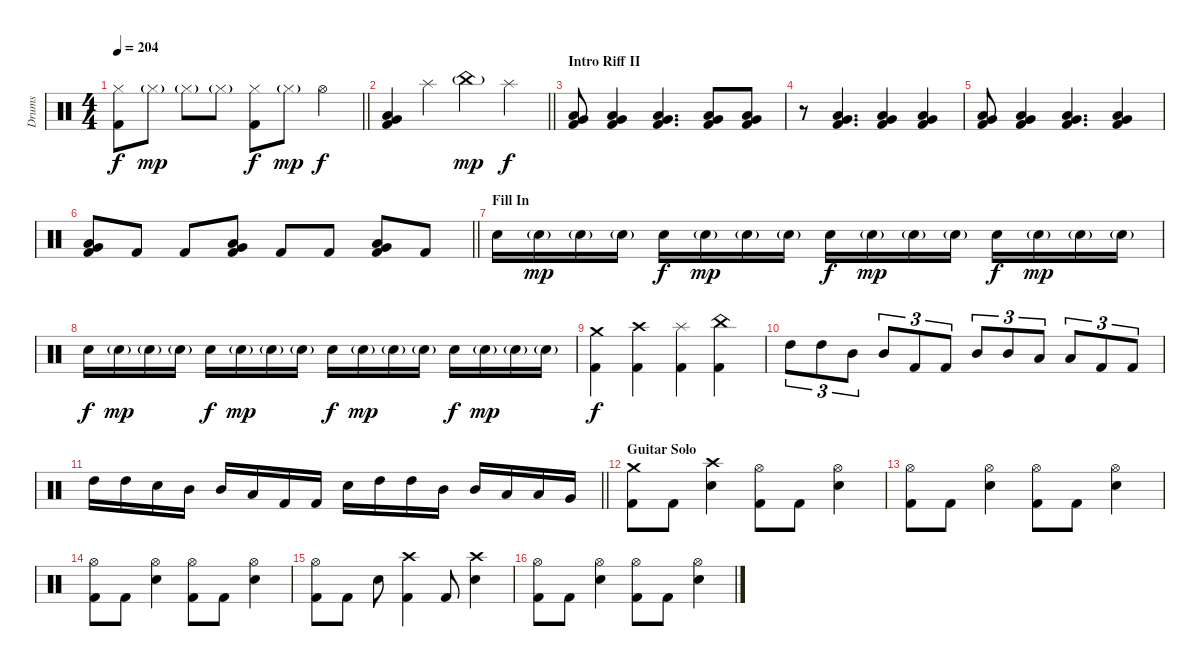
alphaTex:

\track ("Drums" "Drums") {instrument percussion}
\staff {score}
\articulation defaults
\ts (4 4)
\tempo 204
\clef neutral
\barLineRight lightlight
\ks c
("Hi-Hat (closed)" "Kick (hit) 2").8{dy f} "Hi-Hat (closed)"{g}.8{dy mp} "Hi-Hat (closed)"{g}.8 "Hi-Hat (closed)"{g}.8 ("Hi-Hat (closed)" "Kick (hit) 2").8{dy f} "Hi-Hat (closed)"{g}.8{dy mp} "Hi-Hat (open)".4{dy f} |
\barLineRight lightlight
("Very Low Tom (hit)" "Low Floor Tom (hit)" "Kick (hit) 2").4 "Splash (hit)".4 "China (hit)"{g}.4{dy mp} "Splash (hit)".4{dy f} |
\section ("" "Intro Riff II")
("Very Low Tom (hit)" "Low Floor Tom (hit)" "Kick (hit) 2").8 ("Very Low Tom (hit)" "Low Floor Tom (hit)" "Kick (hit) 2").4 ("Very Low Tom (hit)" "Low Floor Tom (hit)" "Kick (hit) 2").4{d} ("Very Low Tom (hit)" "Low Floor Tom (hit)" "Kick (hit) 2").8 ("Very Low Tom (hit)" "Low Floor Tom (hit)" "Kick (hit) 2").8 |
r.8 ("Very Low Tom (hit)" "Low Floor Tom (hit)" "Kick (hit) 2").4{d} ("Very Low Tom (hit)" "Low Floor Tom (hit)" "Kick (hit) 2").4 ("Very Low Tom (hit)" "Low Floor Tom (hit)" "Kick (hit) 2").4 |
("Very Low Tom (hit)" "Low Floor Tom (hit)" "Kick (hit) 2").8 ("Very Low Tom (hit)" "Low Floor Tom (hit)" "Kick (hit) 2").4 ("Very Low Tom (hit)" "Low Floor Tom (hit)" "Kick (hit) 2").4{d} ("Very Low Tom (hit)" "Low Floor Tom (hit)" "Kick (hit) 2").4 |
\barLineRight lightlight
("Very Low Tom (hit)" "Low Floor Tom (hit)" "Kick (hit) 2").8 "Kick (hit) 2".8 "Kick (hit) 2".8 ("Very Low Tom (hit)" "Low Floor Tom (hit)" "Kick (hit) 2").8 "Kick (hit) 2".8 "Kick (hit) 2".8 ("Very Low Tom (hit)" "Low Floor Tom (hit)" "Kick (hit) 2").8 "Kick (hit) 2".8 |
\section ("" "Fill In")
"Electric Snare (hit)".16 "Electric Snare (hit)"{g}.16{dy mp} "Electric Snare (hit)"{g}.16 "Electric Snare (hit)"{g}.16 "Electric Snare (hit)".16{dy f} "Electric Snare (hit)"{g}.16{dy mp} "Electric Snare (hit)"{g}.16 "Electric Snare (hit)"{g}.16 "Electric Snare (hit)".16{dy f} "Electric Snare (hit)"{g}.16{dy mp} "Electric Snare (hit)"{g}.16 "Electric Snare (hit)"{g}.16 "Electric Snare (hit)".16{dy f} "Electric Snare (hit)"{g}.16{dy mp} "Electric Snare (hit)"{g}.16 "Electric Snare (hit)"{g}.16 |
"Electric Snare (hit)".16{dy f} "Electric Snare (hit)"{g}.16{dy mp} "Electric Snare (hit)"{g}.16 "Electric Snare (hit)"{g}.16 "Electric Snare (hit)".16{dy f} "Electric Snare (hit)"{g}.16{dy mp} "Electric Snare (hit)"{g}.16 "Electric Snare (hit)"{g}.16 "Electric Snare (hit)".16{dy f} "Electric Snare (hit)"{g}.16{dy mp} "Electric Snare (hit)"{g}.16 "Electric Snare (hit)"{g}.16 "Electric Snare (hit)".16{dy f} "Electric Snare (hit)"{g}.16{dy mp} "Electric Snare (hit)"{g}.16 "Electric Snare (hit)"{g}.16 |
("Crash medium (hit)" "Kick (hit) 2").4{dy f} ("Crash high (hit)" "Kick (hit) 2").4 ("Splash (hit)" "Kick (hit) 2").4 ("China (hit)" "Kick (hit) 2").4 |
"High Tom (hit)".8{tu (3 2)} "High Tom (hit)".8{tu (3 2)} "Mid Tom (hit)".8{tu (3 2)} "Mid Tom (hit)".8{tu (3 2)} "Kick (hit) 2".8{tu (3 2)} "Kick (hit) 2".8{tu (3 2)} "Mid Tom (hit)".8{tu (3 2)} "Mid Tom (hit)".8{tu (3 2)} "Low Tom (hit)".8{tu (3 2)} "Low Tom (hit)".8{tu (3 2)} "Kick (hit) 2".8{tu (3 2)} "Kick (hit) 2".8{tu (3 2)} |
\barLineRight lightlight "High Tom (hit)".16 "High Tom (hit)".16 "Electric Snare (hit)".16 "Mid Tom (hit)".16 "Mid Tom (hit)".16 "Low Tom (hit)".16 "Kick (hit) 2".16 "Kick (hit) 2".16 "Electric Snare (hit)".16 "High Tom (hit)".16 "High Tom (hit)".16 "Mid Tom (hit)".16 "Mid Tom (hit)".16 "Low Tom (hit)".16 "Low Tom (hit)".16 "Very Low Tom (hit)".16
|
\section ("" "Guitar Solo")
("Crash medium (hit)" "Kick (hit) 2").8 "Kick (hit) 2".8 ("Crash high (hit)" "Electric Snare (hit)").4 ("Hi-Hat (open)" "Kick (hit) 2").8 "Kick (hit) 2".8 ("Hi-Hat (open)" "Electric Snare (hit)").4 |
("Hi-Hat (open)" "Kick (hit) 2").8 "Kick (hit) 2".8 ("Hi-Hat (open)" "Electric Snare (hit)").4 ("Hi-Hat (open)" "Kick (hit) 2").8 "Kick (hit) 2".8 ("Hi-Hat (open)" "Electric Snare (hit)").4 |
("Hi-Hat (open)" "Kick (hit) 2").8 "Kick (hit) 2".8 ("Hi-Hat (open)" "Electric Snare (hit)").4 ("Hi-Hat (open)" "Kick (hit) 2").8 "Kick (hit) 2".8 ("Hi-Hat (open)" "Electric Snare (hit)").4 |
("Hi-Hat (open)" "Kick (hit) 2").8 "Kick (hit) 2".8 "Electric Snare (hit)".8 ("Crash high (hit)" "Kick (hit) 2").4 "Kick (hit) 2".8 ("Crash high (hit)" "Electric Snare (hit)").4 |
("Hi-Hat (open)" "Kick (hit) 2").8 "Kick (hit) 2".8 ("Hi-Hat (open)" "Electric Snare (hit)").4 ("Hi-Hat (open)" "Kick (hit) 2").8 "Kick (hit) 2".8 ("Hi-Hat (open)" "Electric Snare (hit)").4
